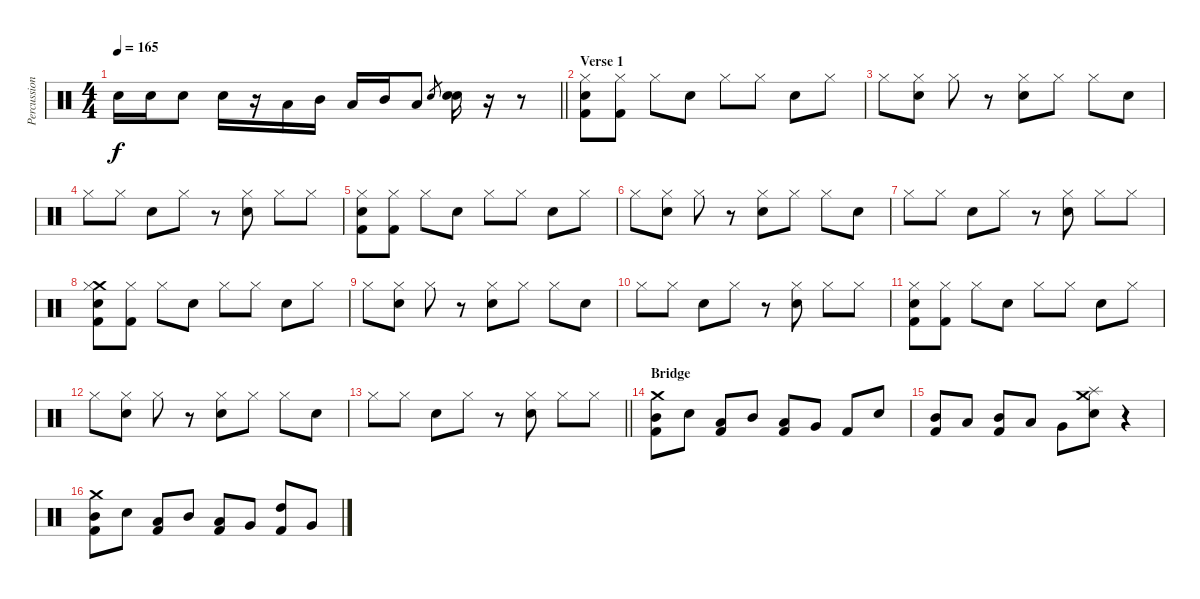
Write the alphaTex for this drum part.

\track ("Percussion" "Percussion") {instrument percussion}
\staff {score}
\articulation defaults
\ts (4 4)
\tempo 165
\clef neutral
\barLineRight lightlight
\ks c "Snare (hit) 2".16{dy f} "Snare (hit) 2".16 "Snare (hit) 2".8 "Snare (hit) 2".16
r.16 "Low Tom (hit)".16 "Mid Tom (hit)".16 "Low Tom (hit)".16 "Mid Tom (hit)".16 "Low Tom (hit)".8 "Snare (hit) 2".8{gr} ("Snare (hit) 2" "Snare (hit) 2").16 r.16 r.8 |
\section ("" "Verse 1")
("Hi-Hat (closed)" "Snare (hit) 2" "Kick (hit) 2").8 ("Hi-Hat (closed)" "Kick (hit) 2").8 "Hi-Hat (closed)".8 "Snare (hit) 2".8 "Hi-Hat (closed)".8 "Hi-Hat (closed)".8 "Snare (hit) 2".8 "Hi-Hat (closed)".8 |
"Hi-Hat (closed)".8 ("Hi-Hat (closed)" "Snare (hit) 2").8 "Hi-Hat (closed)".8 r.8 ("Hi-Hat (closed)" "Snare (hit) 2").8 "Hi-Hat (closed)".8 "Hi-Hat (closed)".8 "Snare (hit) 2".8 |
"Hi-Hat (closed)".8 "Hi-Hat (closed)".8 "Snare (hit) 2".8 "Hi-Hat (closed)".8 r.8 ("Hi-Hat (closed)" "Snare (hit) 2").8 "Hi-Hat (closed)".8 "Hi-Hat (closed)".8 |
("Hi-Hat (closed)" "Snare (hit) 2" "Kick (hit) 2").8 ("Hi-Hat (closed)" "Kick (hit) 2").8 "Hi-Hat (closed)".8 "Snare (hit) 2".8 "Hi-Hat (closed)".8 "Hi-Hat (closed)".8 "Snare (hit) 2".8 "Hi-Hat (closed)".8 |
"Hi-Hat (closed)".8 ("Hi-Hat (closed)" "Snare (hit) 2").8 "Hi-Hat (closed)".8 r.8 ("Hi-Hat (closed)" "Snare (hit) 2").8 "Hi-Hat (closed)".8 "Hi-Hat (closed)".8 "Snare (hit) 2".8 |
"Hi-Hat (closed)".8 "Hi-Hat (closed)".8 "Snare (hit) 2".8 "Hi-Hat (closed)".8 r.8 ("Hi-Hat (closed)" "Snare (hit) 2").8 "Hi-Hat (closed)".8 "Hi-Hat (closed)".8 |
("Crash medium (hit)" "Hi-Hat (closed)" "Snare (hit) 2" "Kick (hit) 2").8 ("Hi-Hat (closed)" "Kick (hit) 2").8 "Hi-Hat (closed)".8 "Snare (hit) 2".8 "Hi-Hat (closed)".8 "Hi-Hat (closed)".8 "Snare (hit) 2".8 "Hi-Hat (closed)".8 |
"Hi-Hat (closed)".8 ("Hi-Hat (closed)" "Snare (hit) 2").8 "Hi-Hat (closed)".8 r.8 ("Hi-Hat (closed)" "Snare (hit) 2").8 "Hi-Hat (closed)".8 "Hi-Hat (closed)".8 "Snare (hit) 2".8 |
"Hi-Hat (closed)".8 "Hi-Hat (closed)".8 "Snare (hit) 2".8 "Hi-Hat (closed)".8 r.8 ("Hi-Hat (closed)" "Snare (hit) 2").8 "Hi-Hat (closed)".8 "Hi-Hat (closed)".8 |
("Hi-Hat (closed)" "Snare (hit) 2" "Kick (hit) 2").8 ("Hi-Hat (closed)" "Kick (hit) 2").8 "Hi-Hat (closed)".8 "Snare (hit) 2".8 "Hi-Hat (closed)".8 "Hi-Hat (closed)".8 "Snare (hit) 2".8 "Hi-Hat (closed)".8 |
"Hi-Hat (closed)".8 ("Hi-Hat (closed)" "Snare (hit) 2").8 "Hi-Hat (closed)".8 r.8 ("Hi-Hat (closed)" "Snare (hit) 2").8 "Hi-Hat (closed)".8 "Hi-Hat (closed)".8 "Snare (hit) 2".8 |
\barLineRight lightlight "Hi-Hat (closed)".8 "Hi-Hat (closed)".8 "Snare (hit) 2".8 "Hi-Hat (closed)".8
r.8 ("Hi-Hat (closed)" "Snare (hit) 2").8 "Hi-Hat (closed)".8 "Hi-Hat (closed)".8 |
\section ("" "Bridge")
("Crash medium (hit)" "Mid Tom (hit)" "Kick (hit) 2").8 "Snare (hit) 2".8 ("Low Tom (hit)" "Kick (hit) 2").8 "Mid Tom (hit)".8 ("Low Tom (hit)" "Kick (hit) 2").8 "Very Low Tom (hit)".8 "Kick (hit) 2".8 "Snare (hit) 2".8 |
("Mid Tom (hit)" "Kick (hit) 2").8 "Low Tom (hit)".8 ("Mid Tom (hit)" "Kick (hit) 2").8 "Low Tom (hit)".8 "Very Low Tom (hit)".8 ("Splash (hit)" "Crash medium (hit)" "Snare (hit) 2").8 r.4 |
("Crash medium (hit)" "Mid Tom (hit)" "Kick (hit) 2").8 "Snare (hit) 2".8 ("Low Tom (hit)" "Kick (hit) 2").8 "Mid Tom (hit)".8 ("Low Tom (hit)" "Kick (hit) 2").8 "Very Low Tom (hit)".8 ("High Tom (hit)" "Kick (hit) 2").8 "Very Low Tom (hit)".8
